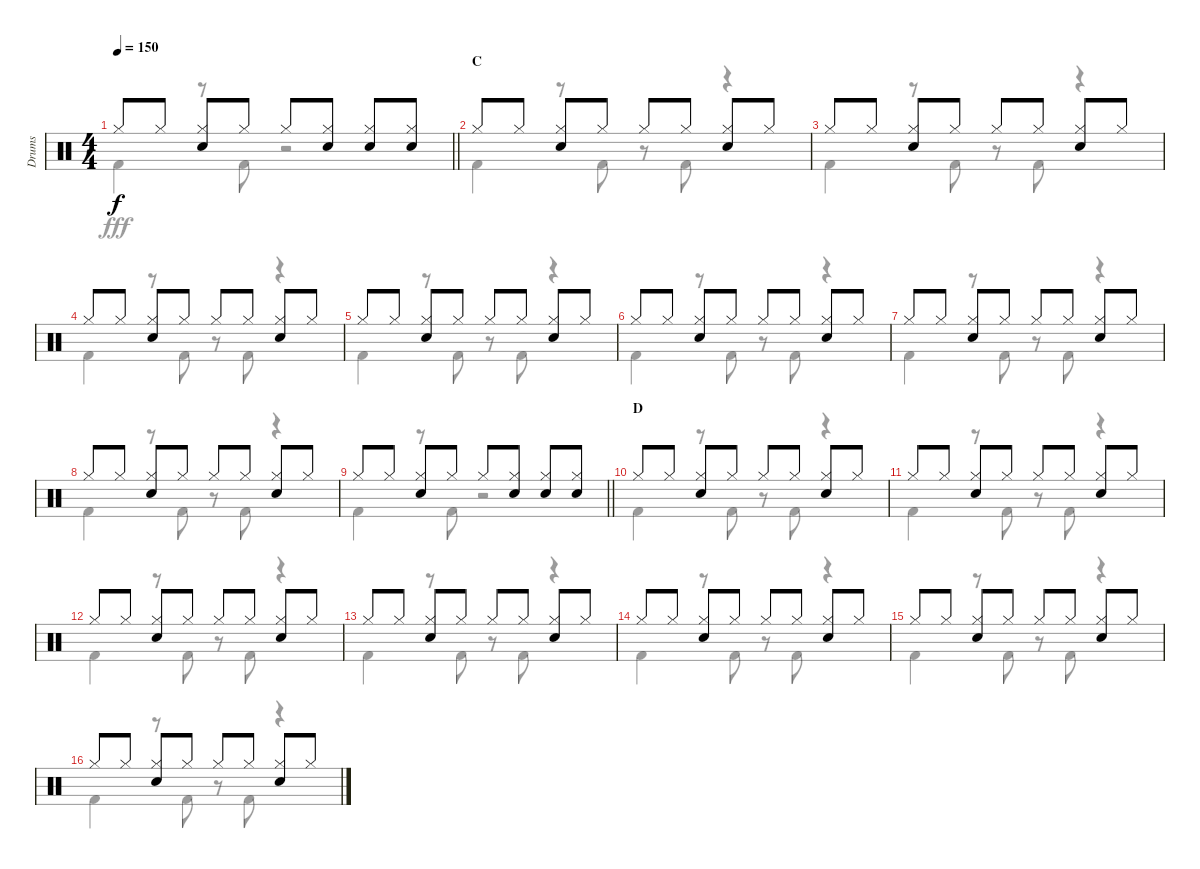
\track ("Drums" "Drums") {instrument percussion}
\staff {score}
\articulation defaults
\voice
\ts (4 4)
\tempo 150
\clef neutral
\barLineRight lightlight
\ks c "Hi-Hat (closed)".8{dy f} "Hi-Hat (closed)".8
("Hi-Hat (closed)" "Electric Snare (hit)").8 "Hi-Hat (closed)".8 "Hi-Hat (closed)".8 ("Hi-Hat (closed)" "Electric Snare (hit)").8 ("Hi-Hat (closed)" "Electric Snare (hit)").8 ("Hi-Hat (closed)" "Electric Snare (hit)").8 |
\section ("" "C")
"Hi-Hat (closed)".8 "Hi-Hat (closed)".8 ("Hi-Hat (closed)" "Electric Snare (hit)").8 "Hi-Hat (closed)".8 "Hi-Hat (closed)".8 "Hi-Hat (closed)".8 ("Hi-Hat (closed)" "Electric Snare (hit)").8 "Hi-Hat (closed)".8 |
"Hi-Hat (closed)".8 "Hi-Hat (closed)".8 ("Hi-Hat (closed)" "Electric Snare (hit)").8 "Hi-Hat (closed)".8 "Hi-Hat (closed)".8 "Hi-Hat (closed)".8 ("Hi-Hat (closed)" "Electric Snare (hit)").8 "Hi-Hat (closed)".8 |
"Hi-Hat (closed)".8 "Hi-Hat (closed)".8 ("Hi-Hat (closed)" "Electric Snare (hit)").8 "Hi-Hat (closed)".8 "Hi-Hat (closed)".8 "Hi-Hat (closed)".8 ("Hi-Hat (closed)" "Electric Snare (hit)").8 "Hi-Hat (closed)".8 |
"Hi-Hat (closed)".8 "Hi-Hat (closed)".8 ("Hi-Hat (closed)" "Electric Snare (hit)").8 "Hi-Hat (closed)".8 "Hi-Hat (closed)".8 "Hi-Hat (closed)".8 ("Hi-Hat (closed)" "Electric Snare (hit)").8 "Hi-Hat (closed)".8 |
"Hi-Hat (closed)".8 "Hi-Hat (closed)".8 ("Hi-Hat (closed)" "Electric Snare (hit)").8 "Hi-Hat (closed)".8 "Hi-Hat (closed)".8 "Hi-Hat (closed)".8 ("Hi-Hat (closed)" "Electric Snare (hit)").8 "Hi-Hat (closed)".8 |
"Hi-Hat (closed)".8 "Hi-Hat (closed)".8 ("Hi-Hat (closed)" "Electric Snare (hit)").8 "Hi-Hat (closed)".8 "Hi-Hat (closed)".8 "Hi-Hat (closed)".8 ("Hi-Hat (closed)" "Electric Snare (hit)").8 "Hi-Hat (closed)".8 |
"Hi-Hat (closed)".8 "Hi-Hat (closed)".8 ("Hi-Hat (closed)" "Electric Snare (hit)").8 "Hi-Hat (closed)".8 "Hi-Hat (closed)".8 "Hi-Hat (closed)".8 ("Hi-Hat (closed)" "Electric Snare (hit)").8 "Hi-Hat (closed)".8 |
\barLineRight lightlight "Hi-Hat (closed)".8 "Hi-Hat (closed)".8
("Hi-Hat (closed)" "Electric Snare (hit)").8 "Hi-Hat (closed)".8 "Hi-Hat (closed)".8 ("Hi-Hat (closed)" "Electric Snare (hit)").8 ("Hi-Hat (closed)" "Electric Snare (hit)").8 ("Hi-Hat (closed)" "Electric Snare (hit)").8 |
\section ("" "D")
"Hi-Hat (closed)".8 "Hi-Hat (closed)".8 ("Hi-Hat (closed)" "Electric Snare (hit)").8 "Hi-Hat (closed)".8 "Hi-Hat (closed)".8 "Hi-Hat (closed)".8 ("Hi-Hat (closed)" "Electric Snare (hit)").8 "Hi-Hat (closed)".8 |
"Hi-Hat (closed)".8 "Hi-Hat (closed)".8 ("Hi-Hat (closed)" "Electric Snare (hit)").8 "Hi-Hat (closed)".8 "Hi-Hat (closed)".8 "Hi-Hat (closed)".8 ("Hi-Hat (closed)" "Electric Snare (hit)").8 "Hi-Hat (closed)".8 |
"Hi-Hat (closed)".8 "Hi-Hat (closed)".8 ("Hi-Hat (closed)" "Electric Snare (hit)").8 "Hi-Hat (closed)".8 "Hi-Hat (closed)".8 "Hi-Hat (closed)".8 ("Hi-Hat (closed)" "Electric Snare (hit)").8 "Hi-Hat (closed)".8 |
"Hi-Hat (closed)".8 "Hi-Hat (closed)".8 ("Hi-Hat (closed)" "Electric Snare (hit)").8 "Hi-Hat (closed)".8 "Hi-Hat (closed)".8 "Hi-Hat (closed)".8 ("Hi-Hat (closed)" "Electric Snare (hit)").8 "Hi-Hat (closed)".8 |
"Hi-Hat (closed)".8 "Hi-Hat (closed)".8 ("Hi-Hat (closed)" "Electric Snare (hit)").8 "Hi-Hat (closed)".8 "Hi-Hat (closed)".8 "Hi-Hat (closed)".8 ("Hi-Hat (closed)" "Electric Snare (hit)").8 "Hi-Hat (closed)".8 |
"Hi-Hat (closed)".8 "Hi-Hat (closed)".8 ("Hi-Hat (closed)" "Electric Snare (hit)").8 "Hi-Hat (closed)".8 "Hi-Hat (closed)".8 "Hi-Hat (closed)".8 ("Hi-Hat (closed)" "Electric Snare (hit)").8 "Hi-Hat (closed)".8 |
"Hi-Hat (closed)".8 "Hi-Hat (closed)".8 ("Hi-Hat (closed)" "Electric Snare (hit)").8 "Hi-Hat (closed)".8 "Hi-Hat (closed)".8 "Hi-Hat (closed)".8 ("Hi-Hat (closed)" "Electric Snare (hit)").8 "Hi-Hat (closed)".8
\voice
\clef neutral
\ottava regular
\simile none
\barLineRight lightlight
\ks c "Kick (hit) 2".4{dy fff}
r.8 "Kick (hit) 2".8 r.2 |
"Kick (hit) 2".4 r.8 "Kick (hit) 2".8 r.8 "Kick (hit) 2".8 r.4 |
"Kick (hit) 2".4 r.8 "Kick (hit) 2".8 r.8 "Kick (hit) 2".8 r.4 |
"Kick (hit) 2".4 r.8 "Kick (hit) 2".8 r.8 "Kick (hit) 2".8 r.4 |
"Kick (hit) 2".4 r.8 "Kick (hit) 2".8 r.8 "Kick (hit) 2".8 r.4 |
"Kick (hit) 2".4 r.8 "Kick (hit) 2".8 r.8 "Kick (hit) 2".8 r.4 |
"Kick (hit) 2".4 r.8 "Kick (hit) 2".8 r.8 "Kick (hit) 2".8 r.4 |
"Kick (hit) 2".4 r.8 "Kick (hit) 2".8 r.8 "Kick (hit) 2".8 r.4 |
\barLineRight lightlight "Kick (hit) 2".4
r.8 "Kick (hit) 2".8 r.2 |
"Kick (hit) 2".4 r.8 "Kick (hit) 2".8 r.8 "Kick (hit) 2".8 r.4 |
"Kick (hit) 2".4 r.8 "Kick (hit) 2".8 r.8 "Kick (hit) 2".8 r.4 |
"Kick (hit) 2".4 r.8 "Kick (hit) 2".8 r.8 "Kick (hit) 2".8 r.4 |
"Kick (hit) 2".4 r.8 "Kick (hit) 2".8 r.8 "Kick (hit) 2".8 r.4 |
"Kick (hit) 2".4 r.8 "Kick (hit) 2".8 r.8 "Kick (hit) 2".8 r.4 |
"Kick (hit) 2".4 r.8 "Kick (hit) 2".8 r.8 "Kick (hit) 2".8 r.4 |
"Kick (hit) 2".4 r.8 "Kick (hit) 2".8 r.8 "Kick (hit) 2".8 r.4
